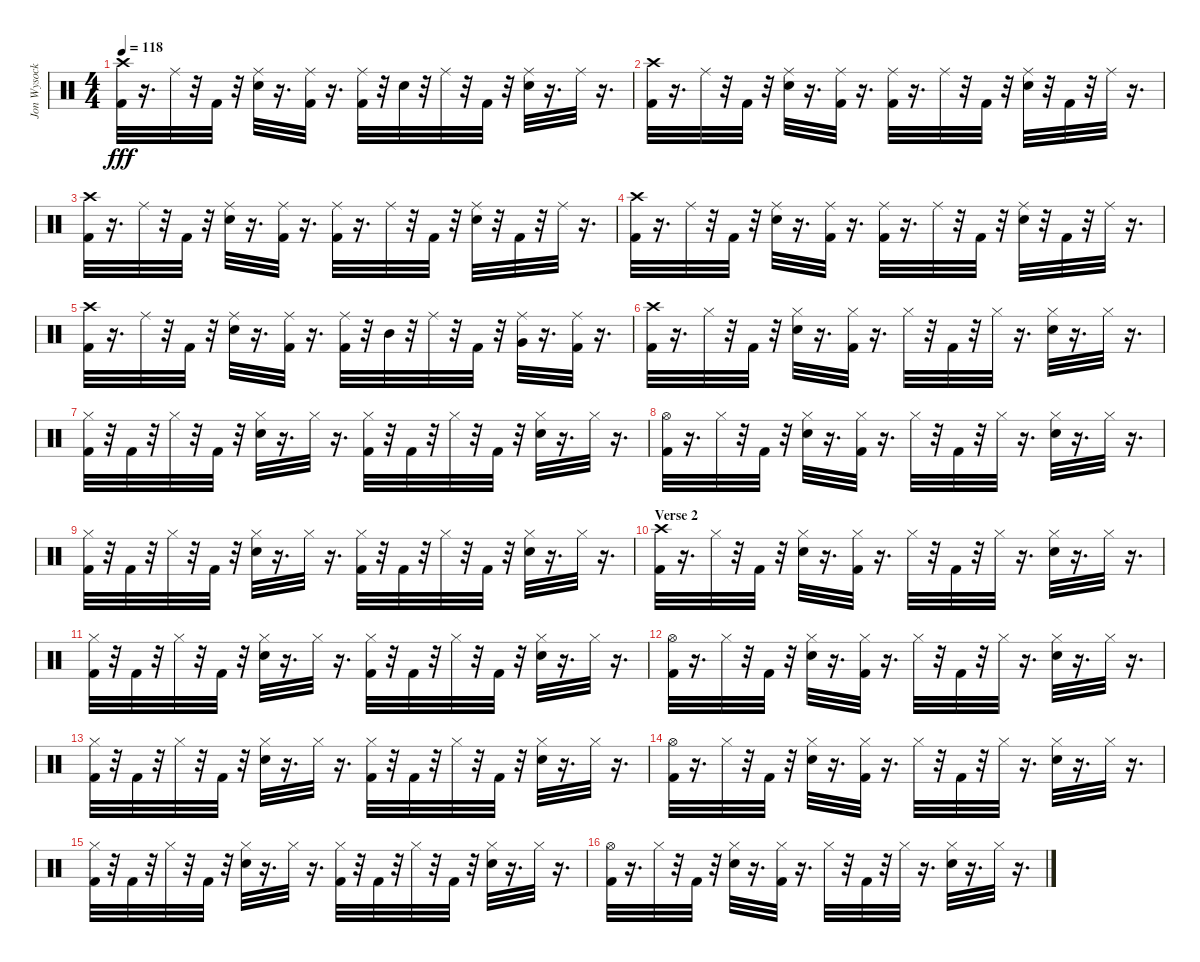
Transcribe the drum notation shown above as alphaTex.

\track ("Jon Wysocki - Drums" "Jon Wysock") {instrument percussion}
\staff {score}
\articulation defaults
\ts (4 4)
\tempo 118
\clef neutral
\ks c
("Crash high (hit)" "Kick (hit) 2").32{dy fff} r.16{d} "Ride (middle)".32 r.32 "Kick (hit) 2".32 r.32 ("Ride (middle)" "Electric Snare (hit)").32 r.16{d} ("Ride (middle)" "Kick (hit) 2").32 r.16{d} ("Ride (middle)" "Kick (hit) 2").32 r.32 "Electric Snare (hit)".32 r.32 "Ride (middle)".32 r.32 "Kick (hit) 2".32 r.32 ("Ride (middle)" "Electric Snare (hit)").32 r.16{d} "Ride (middle)".32 r.16{d} |
("Kick (hit) 2" "Crash high (hit)").32 r.16{d} "Ride (middle)".32 r.32 "Kick (hit) 2".32 r.32 ("Ride (middle)" "Electric Snare (hit)").32 r.16{d} ("Ride (middle)" "Kick (hit) 2").32 r.16{d} ("Ride (middle)" "Kick (hit) 2").32 r.16{d} "Ride (middle)".32 r.32 "Kick (hit) 2".32 r.32 ("Ride (middle)" "Electric Snare (hit)").32 r.32 "Kick (hit) 2".32 r.32 "Ride (middle)".32 r.16{d} |
("Crash high (hit)" "Kick (hit) 2").32 r.16{d} "Ride (middle)".32 r.32 "Kick (hit) 2".32 r.32 ("Electric Snare (hit)" "Ride (middle)").32 r.16{d} ("Kick (hit) 2" "Ride (middle)").32 r.16{d} ("Kick (hit) 2" "Ride (middle)").32 r.16{d} "Ride (middle)".32 r.32 "Kick (hit) 2".32 r.32 ("Electric Snare (hit)" "Ride (middle)").32 r.32 "Kick (hit) 2".32 r.32 "Ride (middle)".32 r.16{d} |
("Crash high (hit)" "Kick (hit) 2").32 r.16{d} "Ride (middle)".32 r.32 "Kick (hit) 2".32 r.32 ("Electric Snare (hit)" "Ride (middle)").32 r.16{d} ("Kick (hit) 2" "Ride (middle)").32 r.16{d} ("Kick (hit) 2" "Ride (middle)").32 r.16{d} "Ride (middle)".32 r.32 "Kick (hit) 2".32 r.32 ("Electric Snare (hit)" "Ride (middle)").32 r.32 "Kick (hit) 2".32 r.32 "Ride (middle)".32 r.16{d} |
("Crash high (hit)" "Kick (hit) 2").32 r.16{d} "Ride (middle)".32 r.32 "Kick (hit) 2".32 r.32 ("Ride (middle)" "Electric Snare (hit)").32 r.16{d} ("Ride (middle)" "Kick (hit) 2").32 r.16{d} ("Ride (middle)" "Kick (hit) 2").32 r.32 "Mid Tom (hit)".32 r.32 "Ride (middle)".32 r.32 "Kick (hit) 2".32 r.32 ("Very Low Tom (hit)" "Ride (middle)").32 r.16{d} ("Kick (hit) 2" "Ride (middle)").32 r.16{d} |
("Crash high (hit)" "Kick (hit) 2").32 r.16{d} "Hi-Hat (closed)".32 r.32 "Kick (hit) 2".32 r.32 ("Electric Snare (hit)" "Hi-Hat (closed)").32 r.16{d} ("Hi-Hat (closed)" "Kick (hit) 2").32 r.16{d} "Hi-Hat (closed)".32 r.32 "Kick (hit) 2".32 r.32 "Hi-Hat (closed)".32 r.16{d} ("Electric Snare (hit)" "Hi-Hat (closed)").32 r.16{d} "Hi-Hat (closed)".32 r.16{d} |
("Hi-Hat (closed)" "Kick (hit) 2").32 r.32 "Kick (hit) 2".32 r.32 "Hi-Hat (closed)".32 r.32 "Kick (hit) 2".32 r.32 ("Hi-Hat (closed)" "Electric Snare (hit)").32 r.16{d} "Hi-Hat (closed)".32 r.16{d} ("Hi-Hat (closed)" "Kick (hit) 2").32 r.32 "Kick (hit) 2".32 r.32 "Hi-Hat (closed)".32 r.32 "Kick (hit) 2".32 r.32 ("Hi-Hat (closed)" "Electric Snare (hit)").32 r.16{d} "Hi-Hat (closed)".32 r.16{d} |
("Kick (hit) 2" "Hi-Hat (open)").32 r.16{d} "Hi-Hat (closed)".32 r.32 "Kick (hit) 2".32 r.32 ("Electric Snare (hit)" "Hi-Hat (closed)").32 r.16{d} ("Hi-Hat (closed)" "Kick (hit) 2").32 r.16{d} "Hi-Hat (closed)".32 r.32 "Kick (hit) 2".32 r.32 "Hi-Hat (closed)".32 r.16{d} ("Electric Snare (hit)" "Hi-Hat (closed)").32 r.16{d} "Hi-Hat (closed)".32 r.16{d} |
("Hi-Hat (closed)" "Kick (hit) 2").32 r.32 "Kick (hit) 2".32 r.32 "Hi-Hat (closed)".32 r.32 "Kick (hit) 2".32 r.32 ("Hi-Hat (closed)" "Electric Snare (hit)").32 r.16{d} "Hi-Hat (closed)".32 r.16{d} ("Hi-Hat (closed)" "Kick (hit) 2").32 r.32 "Kick (hit) 2".32 r.32 "Hi-Hat (closed)".32 r.32 "Kick (hit) 2".32 r.32 ("Hi-Hat (closed)" "Electric Snare (hit)").32 r.16{d} "Hi-Hat (closed)".32 r.16{d} |
\section ("" "Verse 2")
("Crash high (hit)" "Kick (hit) 2").32 r.16{d} "Hi-Hat (closed)".32 r.32 "Kick (hit) 2".32 r.32 ("Electric Snare (hit)" "Hi-Hat (closed)").32 r.16{d} ("Hi-Hat (closed)" "Kick (hit) 2").32 r.16{d} "Hi-Hat (closed)".32 r.32 "Kick (hit) 2".32 r.32 "Hi-Hat (closed)".32 r.16{d} ("Electric Snare (hit)" "Hi-Hat (closed)").32 r.16{d} "Hi-Hat (closed)".32 r.16{d} |
("Hi-Hat (closed)" "Kick (hit) 2").32 r.32 "Kick (hit) 2".32 r.32 "Hi-Hat (closed)".32 r.32 "Kick (hit) 2".32 r.32 ("Hi-Hat (closed)" "Electric Snare (hit)").32 r.16{d} "Hi-Hat (closed)".32 r.16{d} ("Hi-Hat (closed)" "Kick (hit) 2").32 r.32 "Kick (hit) 2".32 r.32 "Hi-Hat (closed)".32 r.32 "Kick (hit) 2".32 r.32 ("Hi-Hat (closed)" "Electric Snare (hit)").32 r.16{d} "Hi-Hat (closed)".32 r.16{d} |
("Kick (hit) 2" "Hi-Hat (open)").32 r.16{d} "Hi-Hat (closed)".32 r.32 "Kick (hit) 2".32 r.32 ("Electric Snare (hit)" "Hi-Hat (closed)").32 r.16{d} ("Hi-Hat (closed)" "Kick (hit) 2").32 r.16{d} "Hi-Hat (closed)".32 r.32 "Kick (hit) 2".32 r.32 "Hi-Hat (closed)".32 r.16{d} ("Electric Snare (hit)" "Hi-Hat (closed)").32 r.16{d} "Hi-Hat (closed)".32 r.16{d} |
("Hi-Hat (closed)" "Kick (hit) 2").32 r.32 "Kick (hit) 2".32 r.32 "Hi-Hat (closed)".32 r.32 "Kick (hit) 2".32 r.32 ("Hi-Hat (closed)" "Electric Snare (hit)").32 r.16{d} "Hi-Hat (closed)".32 r.16{d} ("Hi-Hat (closed)" "Kick (hit) 2").32 r.32 "Kick (hit) 2".32 r.32 "Hi-Hat (closed)".32 r.32 "Kick (hit) 2".32 r.32 ("Hi-Hat (closed)" "Electric Snare (hit)").32 r.16{d} "Hi-Hat (closed)".32 r.16{d} |
("Kick (hit) 2" "Hi-Hat (open)").32 r.16{d} "Hi-Hat (closed)".32 r.32 "Kick (hit) 2".32 r.32 ("Electric Snare (hit)" "Hi-Hat (closed)").32 r.16{d} ("Hi-Hat (closed)" "Kick (hit) 2").32 r.16{d} "Hi-Hat (closed)".32 r.32 "Kick (hit) 2".32 r.32 "Hi-Hat (closed)".32 r.16{d} ("Electric Snare (hit)" "Hi-Hat (closed)").32 r.16{d} "Hi-Hat (closed)".32 r.16{d} |
("Hi-Hat (closed)" "Kick (hit) 2").32 r.32 "Kick (hit) 2".32 r.32 "Hi-Hat (closed)".32 r.32 "Kick (hit) 2".32 r.32 ("Hi-Hat (closed)" "Electric Snare (hit)").32 r.16{d} "Hi-Hat (closed)".32 r.16{d} ("Hi-Hat (closed)" "Kick (hit) 2").32 r.32 "Kick (hit) 2".32 r.32 "Hi-Hat (closed)".32 r.32 "Kick (hit) 2".32 r.32 ("Hi-Hat (closed)" "Electric Snare (hit)").32 r.16{d} "Hi-Hat (closed)".32 r.16{d} |
("Kick (hit) 2" "Hi-Hat (open)").32 r.16{d} "Hi-Hat (closed)".32 r.32 "Kick (hit) 2".32 r.32 ("Electric Snare (hit)" "Hi-Hat (closed)").32 r.16{d} ("Hi-Hat (closed)" "Kick (hit) 2").32 r.16{d} "Hi-Hat (closed)".32 r.32 "Kick (hit) 2".32 r.32 "Hi-Hat (closed)".32 r.16{d} ("Electric Snare (hit)" "Hi-Hat (closed)").32 r.16{d} "Hi-Hat (closed)".32 r.16{d}
